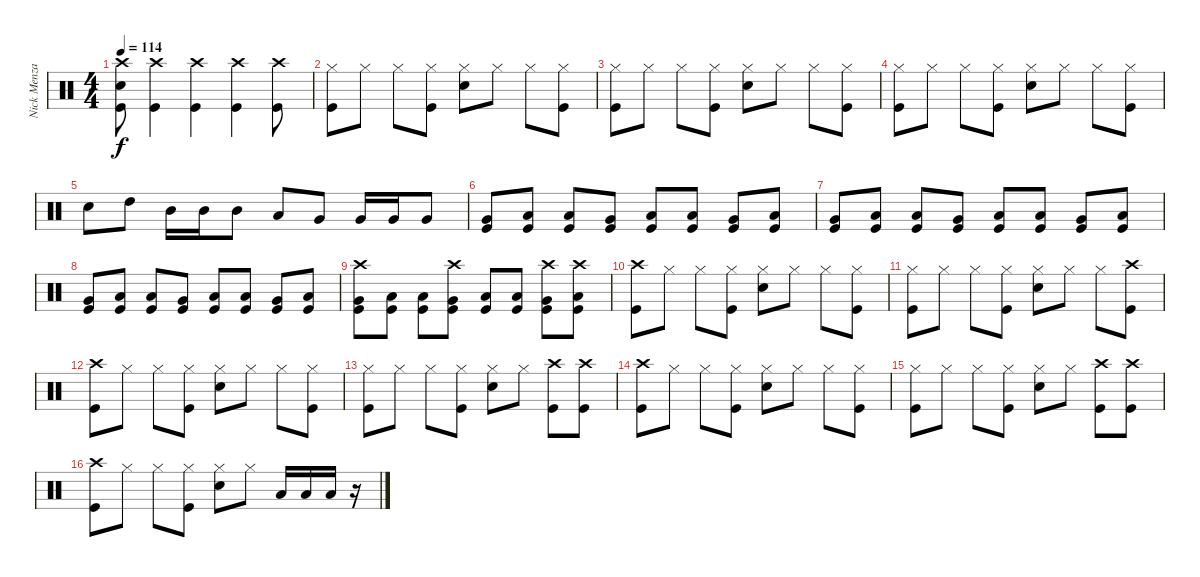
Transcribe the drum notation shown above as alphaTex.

\track ("Nick Menza" "Nick Menza") {instrument percussion}
\staff {score}
\articulation defaults
\ts (4 4)
\tempo 114
\clef neutral
\ks c
("Crash high (hit)" "Snare (hit) 2" "Kick (hit)").8{dy f} ("Crash high (hit)" "Kick (hit)").4 ("Crash high (hit)" "Kick (hit)").4 ("Crash high (hit)" "Kick (hit)").4 ("Crash high (hit)" "Kick (hit)").8 |
("Hi-Hat (closed)" "Kick (hit)").8 "Hi-Hat (closed)".8 "Hi-Hat (closed)".8 ("Hi-Hat (closed)" "Kick (hit)").8 ("Hi-Hat (closed)" "Snare (hit) 2").8 "Hi-Hat (closed)".8 "Hi-Hat (closed)".8 ("Hi-Hat (closed)" "Kick (hit)").8 |
("Hi-Hat (closed)" "Kick (hit)").8 "Hi-Hat (closed)".8 "Hi-Hat (closed)".8 ("Hi-Hat (closed)" "Kick (hit)").8 ("Hi-Hat (closed)" "Snare (hit) 2").8 "Hi-Hat (closed)".8 "Hi-Hat (closed)".8 ("Hi-Hat (closed)" "Kick (hit)").8 |
("Hi-Hat (closed)" "Kick (hit)").8 "Hi-Hat (closed)".8 "Hi-Hat (closed)".8 ("Hi-Hat (closed)" "Kick (hit)").8 ("Hi-Hat (closed)" "Snare (hit) 2").8 "Hi-Hat (closed)".8 "Hi-Hat (closed)".8 ("Hi-Hat (closed)" "Kick (hit)").8 |
"Snare (hit) 2".8 "High Tom (hit)".8 "Mid Tom (hit)".16 "Mid Tom (hit)".16 "Mid Tom (hit)".8 "Low Tom (hit)".8 "Very Low Tom (hit)".8 "Very Low Tom (hit)".16 "Very Low Tom (hit)".16 "Very Low Tom (hit)".8 |
("Very Low Tom (hit)" "Kick (hit)").8 ("Low Floor Tom (hit)" "Kick (hit)").8 ("Low Floor Tom (hit)" "Kick (hit)").8 ("Very Low Tom (hit)" "Kick (hit)").8 ("Low Floor Tom (hit)" "Kick (hit)").8 ("Low Floor Tom (hit)" "Kick (hit)").8 ("Very Low Tom (hit)" "Kick (hit)").8 ("Low Floor Tom (hit)" "Kick (hit)").8 |
("Very Low Tom (hit)" "Kick (hit)").8 ("Low Floor Tom (hit)" "Kick (hit)").8 ("Low Floor Tom (hit)" "Kick (hit)").8 ("Very Low Tom (hit)" "Kick (hit)").8 ("Low Floor Tom (hit)" "Kick (hit)").8 ("Low Floor Tom (hit)" "Kick (hit)").8 ("Very Low Tom (hit)" "Kick (hit)").8 ("Low Floor Tom (hit)" "Kick (hit)").8 |
("Very Low Tom (hit)" "Kick (hit)").8 ("Low Floor Tom (hit)" "Kick (hit)").8 ("Low Floor Tom (hit)" "Kick (hit)").8 ("Very Low Tom (hit)" "Kick (hit)").8 ("Low Floor Tom (hit)" "Kick (hit)").8 ("Low Floor Tom (hit)" "Kick (hit)").8 ("Very Low Tom (hit)" "Kick (hit)").8 ("Low Floor Tom (hit)" "Kick (hit)").8 |
("Crash high (hit)" "Very Low Tom (hit)" "Kick (hit)").8 ("Low Floor Tom (hit)" "Kick (hit)").8 ("Low Floor Tom (hit)" "Kick (hit)").8 ("Crash high (hit)" "Very Low Tom (hit)" "Kick (hit)").8 ("Low Floor Tom (hit)" "Kick (hit)").8 ("Low Floor Tom (hit)" "Kick (hit)").8 ("Crash high (hit)" "Very Low Tom (hit)" "Kick (hit)").8 ("Crash high (hit)" "Low Floor Tom (hit)" "Kick (hit)").8 |
("Crash high (hit)" "Kick (hit)").8 "Hi-Hat (closed)".8 "Hi-Hat (closed)".8 ("Hi-Hat (closed)" "Kick (hit)").8 ("Hi-Hat (closed)" "Snare (hit) 2").8 "Hi-Hat (closed)".8 "Hi-Hat (closed)".8 ("Hi-Hat (closed)" "Kick (hit)").8 |
("Hi-Hat (closed)" "Kick (hit)").8 "Hi-Hat (closed)".8 "Hi-Hat (closed)".8 ("Hi-Hat (closed)" "Kick (hit)").8 ("Hi-Hat (closed)" "Snare (hit) 2").8 "Hi-Hat (closed)".8 "Hi-Hat (closed)".8 ("Crash high (hit)" "Kick (hit)").8 |
("Crash high (hit)" "Kick (hit)").8 "Hi-Hat (closed)".8 "Hi-Hat (closed)".8 ("Hi-Hat (closed)" "Kick (hit)").8 ("Hi-Hat (closed)" "Snare (hit) 2").8 "Hi-Hat (closed)".8 "Hi-Hat (closed)".8 ("Hi-Hat (closed)" "Kick (hit)").8 |
("Hi-Hat (closed)" "Kick (hit)").8 "Hi-Hat (closed)".8 "Hi-Hat (closed)".8 ("Hi-Hat (closed)" "Kick (hit)").8 ("Hi-Hat (closed)" "Snare (hit) 2").8 "Hi-Hat (closed)".8 ("Crash high (hit)" "Kick (hit)").8 ("Crash high (hit)" "Kick (hit)").8 |
("Crash high (hit)" "Kick (hit)").8 "Hi-Hat (closed)".8 "Hi-Hat (closed)".8 ("Hi-Hat (closed)" "Kick (hit)").8 ("Hi-Hat (closed)" "Snare (hit) 2").8 "Hi-Hat (closed)".8 "Hi-Hat (closed)".8 ("Hi-Hat (closed)" "Kick (hit)").8 |
("Hi-Hat (closed)" "Kick (hit)").8 "Hi-Hat (closed)".8 "Hi-Hat (closed)".8 ("Hi-Hat (closed)" "Kick (hit)").8 ("Hi-Hat (closed)" "Snare (hit) 2").8 "Hi-Hat (closed)".8 ("Crash high (hit)" "Kick (hit)").8 ("Crash high (hit)" "Kick (hit)").8 |
("Crash high (hit)" "Kick (hit)").8 "Hi-Hat (closed)".8 "Hi-Hat (closed)".8 ("Hi-Hat (closed)" "Kick (hit)").8 ("Hi-Hat (closed)" "Snare (hit) 2").8 "Hi-Hat (closed)".8 "Low Floor Tom (hit)".16 "Low Floor Tom (hit)".16 "Low Floor Tom (hit)".16 r.16
